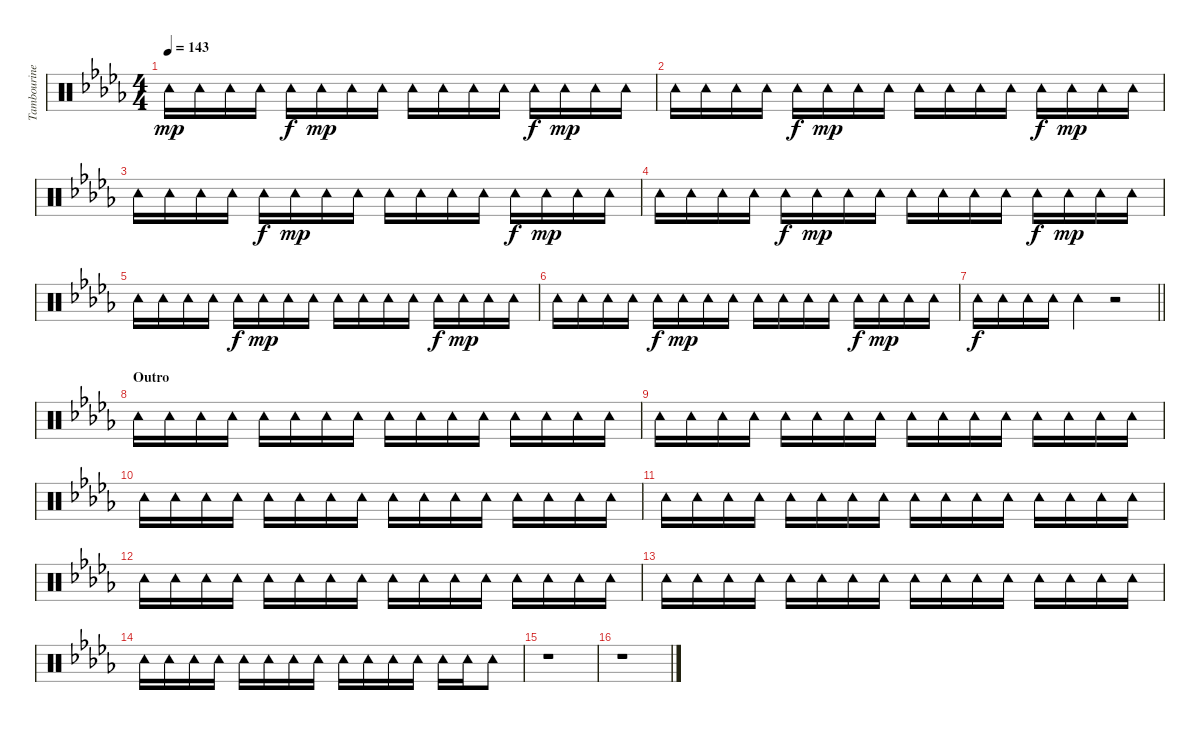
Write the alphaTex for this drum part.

\track ("Tambourine" "Tambourine") {instrument percussion}
\staff {score}
\articulation defaults
\ts (4 4)
\tempo 143
\clef neutral
\ks db "Tambourine (hit)".16{dy mp} "Tambourine (hit)".16 "Tambourine (hit)".16 "Tambourine (hit)".16 "Tambourine (hit)".16{dy f} "Tambourine (hit)".16{dy mp} "Tambourine (hit)".16 "Tambourine (hit)".16 "Tambourine (hit)".16 "Tambourine (hit)".16 "Tambourine (hit)".16 "Tambourine (hit)".16 "Tambourine (hit)".16{dy f} "Tambourine (hit)".16{dy mp} "Tambourine (hit)".16 "Tambourine (hit)".16
|
"Tambourine (hit)".16 "Tambourine (hit)".16 "Tambourine (hit)".16 "Tambourine (hit)".16 "Tambourine (hit)".16{dy f} "Tambourine (hit)".16{dy mp} "Tambourine (hit)".16 "Tambourine (hit)".16 "Tambourine (hit)".16 "Tambourine (hit)".16 "Tambourine (hit)".16 "Tambourine (hit)".16 "Tambourine (hit)".16{dy f} "Tambourine (hit)".16{dy mp} "Tambourine (hit)".16 "Tambourine (hit)".16 |
"Tambourine (hit)".16 "Tambourine (hit)".16 "Tambourine (hit)".16 "Tambourine (hit)".16 "Tambourine (hit)".16{dy f} "Tambourine (hit)".16{dy mp} "Tambourine (hit)".16 "Tambourine (hit)".16 "Tambourine (hit)".16 "Tambourine (hit)".16 "Tambourine (hit)".16 "Tambourine (hit)".16 "Tambourine (hit)".16{dy f} "Tambourine (hit)".16{dy mp} "Tambourine (hit)".16 "Tambourine (hit)".16 |
"Tambourine (hit)".16 "Tambourine (hit)".16 "Tambourine (hit)".16 "Tambourine (hit)".16 "Tambourine (hit)".16{dy f} "Tambourine (hit)".16{dy mp} "Tambourine (hit)".16 "Tambourine (hit)".16 "Tambourine (hit)".16 "Tambourine (hit)".16 "Tambourine (hit)".16 "Tambourine (hit)".16 "Tambourine (hit)".16{dy f} "Tambourine (hit)".16{dy mp} "Tambourine (hit)".16 "Tambourine (hit)".16 |
"Tambourine (hit)".16 "Tambourine (hit)".16 "Tambourine (hit)".16 "Tambourine (hit)".16 "Tambourine (hit)".16{dy f} "Tambourine (hit)".16{dy mp} "Tambourine (hit)".16 "Tambourine (hit)".16 "Tambourine (hit)".16 "Tambourine (hit)".16 "Tambourine (hit)".16 "Tambourine (hit)".16 "Tambourine (hit)".16{dy f} "Tambourine (hit)".16{dy mp} "Tambourine (hit)".16 "Tambourine (hit)".16 |
"Tambourine (hit)".16 "Tambourine (hit)".16 "Tambourine (hit)".16 "Tambourine (hit)".16 "Tambourine (hit)".16{dy f} "Tambourine (hit)".16{dy mp} "Tambourine (hit)".16 "Tambourine (hit)".16 "Tambourine (hit)".16 "Tambourine (hit)".16 "Tambourine (hit)".16 "Tambourine (hit)".16 "Tambourine (hit)".16{dy f} "Tambourine (hit)".16{dy mp} "Tambourine (hit)".16 "Tambourine (hit)".16 |
\barLineRight lightlight "Tambourine (hit)".16{dy f} "Tambourine (hit)".16 "Tambourine (hit)".16 "Tambourine (hit)".16 "Tambourine (hit)".4
r.2 |
\section ("" "Outro")
"Tambourine (hit)".16 "Tambourine (hit)".16 "Tambourine (hit)".16 "Tambourine (hit)".16 "Tambourine (hit)".16 "Tambourine (hit)".16 "Tambourine (hit)".16 "Tambourine (hit)".16 "Tambourine (hit)".16 "Tambourine (hit)".16 "Tambourine (hit)".16 "Tambourine (hit)".16 "Tambourine (hit)".16 "Tambourine (hit)".16 "Tambourine (hit)".16 "Tambourine (hit)".16 |
"Tambourine (hit)".16 "Tambourine (hit)".16 "Tambourine (hit)".16 "Tambourine (hit)".16 "Tambourine (hit)".16 "Tambourine (hit)".16 "Tambourine (hit)".16 "Tambourine (hit)".16 "Tambourine (hit)".16 "Tambourine (hit)".16 "Tambourine (hit)".16 "Tambourine (hit)".16 "Tambourine (hit)".16 "Tambourine (hit)".16 "Tambourine (hit)".16 "Tambourine (hit)".16 |
"Tambourine (hit)".16 "Tambourine (hit)".16 "Tambourine (hit)".16 "Tambourine (hit)".16 "Tambourine (hit)".16 "Tambourine (hit)".16 "Tambourine (hit)".16 "Tambourine (hit)".16 "Tambourine (hit)".16 "Tambourine (hit)".16 "Tambourine (hit)".16 "Tambourine (hit)".16 "Tambourine (hit)".16 "Tambourine (hit)".16 "Tambourine (hit)".16 "Tambourine (hit)".16 |
"Tambourine (hit)".16 "Tambourine (hit)".16 "Tambourine (hit)".16 "Tambourine (hit)".16 "Tambourine (hit)".16 "Tambourine (hit)".16 "Tambourine (hit)".16 "Tambourine (hit)".16 "Tambourine (hit)".16 "Tambourine (hit)".16 "Tambourine (hit)".16 "Tambourine (hit)".16 "Tambourine (hit)".16 "Tambourine (hit)".16 "Tambourine (hit)".16 "Tambourine (hit)".16 |
"Tambourine (hit)".16 "Tambourine (hit)".16 "Tambourine (hit)".16 "Tambourine (hit)".16 "Tambourine (hit)".16 "Tambourine (hit)".16 "Tambourine (hit)".16 "Tambourine (hit)".16 "Tambourine (hit)".16 "Tambourine (hit)".16 "Tambourine (hit)".16 "Tambourine (hit)".16 "Tambourine (hit)".16 "Tambourine (hit)".16 "Tambourine (hit)".16 "Tambourine (hit)".16 |
"Tambourine (hit)".16 "Tambourine (hit)".16 "Tambourine (hit)".16 "Tambourine (hit)".16 "Tambourine (hit)".16 "Tambourine (hit)".16 "Tambourine (hit)".16 "Tambourine (hit)".16 "Tambourine (hit)".16 "Tambourine (hit)".16 "Tambourine (hit)".16 "Tambourine (hit)".16 "Tambourine (hit)".16 "Tambourine (hit)".16 "Tambourine (hit)".16 "Tambourine (hit)".16 |
"Tambourine (hit)".16 "Tambourine (hit)".16 "Tambourine (hit)".16 "Tambourine (hit)".16 "Tambourine (hit)".16 "Tambourine (hit)".16 "Tambourine (hit)".16 "Tambourine (hit)".16 "Tambourine (hit)".16 "Tambourine (hit)".16 "Tambourine (hit)".16 "Tambourine (hit)".16 "Tambourine (hit)".16 "Tambourine (hit)".16 "Tambourine (hit)".8 |
r.1 |
r.1
